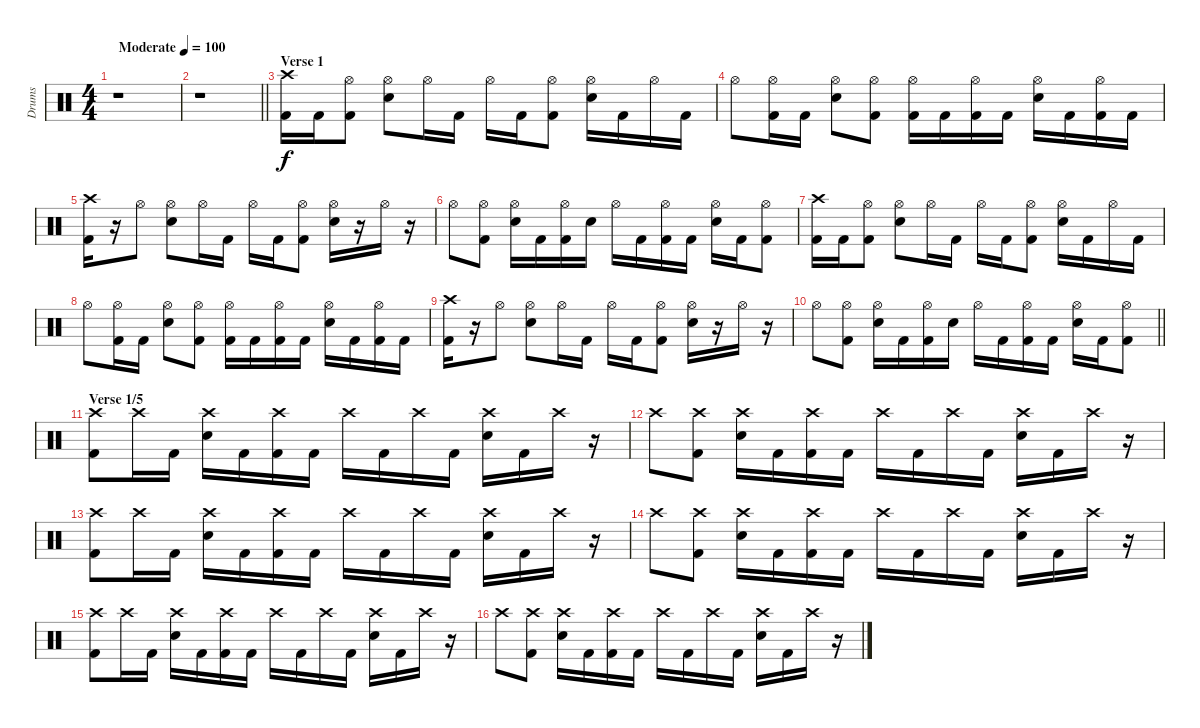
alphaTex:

\track ("Drums" "Drums") {instrument percussion}
\staff {score}
\articulation defaults
\ts (4 4)
\tempo (100 "Moderate")
\clef neutral
\ks c
r.1{dy f} |
\barLineRight lightlight
r.1 |
\section ("" "Verse 1")
("Kick (hit) 2" "Crash high (hit)").16 "Kick (hit) 2".16 ("Kick (hit) 2" "Hi-Hat (open)").8 ("Electric Snare (hit)" "Hi-Hat (open)").8 "Hi-Hat (open)".16 "Kick (hit) 2".16 "Hi-Hat (open)".16 "Kick (hit) 2".16 ("Kick (hit) 2" "Hi-Hat (open)").8 ("Electric Snare (hit)" "Hi-Hat (open)").16 "Kick (hit) 2".16 "Hi-Hat (open)".16 "Kick (hit) 2".16 |
"Hi-Hat (open)".8 ("Hi-Hat (open)" "Kick (hit) 2").16 "Kick (hit) 2".16 ("Hi-Hat (open)" "Electric Snare (hit)").8 ("Kick (hit) 2" "Hi-Hat (open)").8 ("Hi-Hat (open)" "Kick (hit) 2").16 "Kick (hit) 2".16 ("Hi-Hat (open)" "Kick (hit) 2").16 "Kick (hit) 2".16 ("Hi-Hat (open)" "Electric Snare (hit)").16 "Kick (hit) 2".16 ("Hi-Hat (open)" "Kick (hit) 2").16 "Kick (hit) 2".16 |
("Kick (hit) 2" "Crash high (hit)").16 r.16 "Hi-Hat (open)".8 ("Electric Snare (hit)" "Hi-Hat (open)").8 "Hi-Hat (open)".16 "Kick (hit) 2".16 "Hi-Hat (open)".16 "Kick (hit) 2".16 ("Kick (hit) 2" "Hi-Hat (open)").8 ("Electric Snare (hit)" "Hi-Hat (open)").16 r.16 "Hi-Hat (open)".16 r.16 |
"Hi-Hat (open)".8 ("Hi-Hat (open)" "Kick (hit) 2").8 ("Hi-Hat (open)" "Electric Snare (hit)").16 "Kick (hit) 2".16 ("Kick (hit) 2" "Hi-Hat (open)").16 "Electric Snare (hit)".16 "Hi-Hat (open)".16 "Kick (hit) 2".16 ("Kick (hit) 2" "Hi-Hat (open)").16 "Kick (hit) 2".16 ("Hi-Hat (open)" "Electric Snare (hit)").16 "Kick (hit) 2".16 ("Hi-Hat (open)" "Kick (hit) 2").8 |
("Kick (hit) 2" "Crash high (hit)").16 "Kick (hit) 2".16 ("Kick (hit) 2" "Hi-Hat (open)").8 ("Electric Snare (hit)" "Hi-Hat (open)").8 "Hi-Hat (open)".16 "Kick (hit) 2".16 "Hi-Hat (open)".16 "Kick (hit) 2".16 ("Kick (hit) 2" "Hi-Hat (open)").8 ("Electric Snare (hit)" "Hi-Hat (open)").16 "Kick (hit) 2".16 "Hi-Hat (open)".16 "Kick (hit) 2".16 |
"Hi-Hat (open)".8 ("Hi-Hat (open)" "Kick (hit) 2").16 "Kick (hit) 2".16 ("Hi-Hat (open)" "Electric Snare (hit)").8 ("Kick (hit) 2" "Hi-Hat (open)").8 ("Hi-Hat (open)" "Kick (hit) 2").16 "Kick (hit) 2".16 ("Hi-Hat (open)" "Kick (hit) 2").16 "Kick (hit) 2".16 ("Hi-Hat (open)" "Electric Snare (hit)").16 "Kick (hit) 2".16 ("Hi-Hat (open)" "Kick (hit) 2").16 "Kick (hit) 2".16 |
("Kick (hit) 2" "Crash high (hit)").16 r.16 "Hi-Hat (open)".8 ("Electric Snare (hit)" "Hi-Hat (open)").8 "Hi-Hat (open)".16 "Kick (hit) 2".16 "Hi-Hat (open)".16 "Kick (hit) 2".16 ("Kick (hit) 2" "Hi-Hat (open)").8 ("Electric Snare (hit)" "Hi-Hat (open)").16 r.16 "Hi-Hat (open)".16 r.16 |
\barLineRight lightlight "Hi-Hat (open)".8
("Hi-Hat (open)" "Kick (hit) 2").8 ("Hi-Hat (open)" "Electric Snare (hit)").16 "Kick (hit) 2".16 ("Kick (hit) 2" "Hi-Hat (open)").16 "Electric Snare (hit)".16 "Hi-Hat (open)".16 "Kick (hit) 2".16 ("Kick (hit) 2" "Hi-Hat (open)").16 "Kick (hit) 2".16 ("Hi-Hat (open)" "Electric Snare (hit)").16 "Kick (hit) 2".16 ("Hi-Hat (open)" "Kick (hit) 2").8 |
\section ("" "Verse 1/5")
("Kick (hit) 2" "Crash high (hit)").8 "Crash high (hit)".16 "Kick (hit) 2".16 ("Electric Snare (hit)" "Crash high (hit)").16 "Kick (hit) 2".16 ("Kick (hit) 2" "Crash high (hit)").16 "Kick (hit) 2".16 "Crash high (hit)".16 "Kick (hit) 2".16 "Crash high (hit)".16 "Kick (hit) 2".16 ("Crash high (hit)" "Electric Snare (hit)").16 "Kick (hit) 2".16 "Crash high (hit)".16 r.16 |
"Crash high (hit)".8 ("Kick (hit) 2" "Crash high (hit)").8 ("Crash high (hit)" "Electric Snare (hit)").16 "Kick (hit) 2".16 ("Kick (hit) 2" "Crash high (hit)").16 "Kick (hit) 2".16 "Crash high (hit)".16 "Kick (hit) 2".16 "Crash high (hit)".16 "Kick (hit) 2".16 ("Crash high (hit)" "Electric Snare (hit)").16 "Kick (hit) 2".16 "Crash high (hit)".16 r.16 |
("Kick (hit) 2" "Crash high (hit)").8 "Crash high (hit)".16 "Kick (hit) 2".16 ("Electric Snare (hit)" "Crash high (hit)").16 "Kick (hit) 2".16 ("Kick (hit) 2" "Crash high (hit)").16 "Kick (hit) 2".16 "Crash high (hit)".16 "Kick (hit) 2".16 "Crash high (hit)".16 "Kick (hit) 2".16 ("Crash high (hit)" "Electric Snare (hit)").16 "Kick (hit) 2".16 "Crash high (hit)".16 r.16 |
"Crash high (hit)".8 ("Kick (hit) 2" "Crash high (hit)").8 ("Crash high (hit)" "Electric Snare (hit)").16 "Kick (hit) 2".16 ("Kick (hit) 2" "Crash high (hit)").16 "Kick (hit) 2".16 "Crash high (hit)".16 "Kick (hit) 2".16 "Crash high (hit)".16 "Kick (hit) 2".16 ("Crash high (hit)" "Electric Snare (hit)").16 "Kick (hit) 2".16 "Crash high (hit)".16 r.16 |
("Kick (hit) 2" "Crash high (hit)").8 "Crash high (hit)".16 "Kick (hit) 2".16 ("Electric Snare (hit)" "Crash high (hit)").16 "Kick (hit) 2".16 ("Kick (hit) 2" "Crash high (hit)").16 "Kick (hit) 2".16 "Crash high (hit)".16 "Kick (hit) 2".16 "Crash high (hit)".16 "Kick (hit) 2".16 ("Crash high (hit)" "Electric Snare (hit)").16 "Kick (hit) 2".16 "Crash high (hit)".16 r.16 |
"Crash high (hit)".8 ("Kick (hit) 2" "Crash high (hit)").8 ("Crash high (hit)" "Electric Snare (hit)").16 "Kick (hit) 2".16 ("Kick (hit) 2" "Crash high (hit)").16 "Kick (hit) 2".16 "Crash high (hit)".16 "Kick (hit) 2".16 "Crash high (hit)".16 "Kick (hit) 2".16 ("Crash high (hit)" "Electric Snare (hit)").16 "Kick (hit) 2".16 "Crash high (hit)".16 r.16
